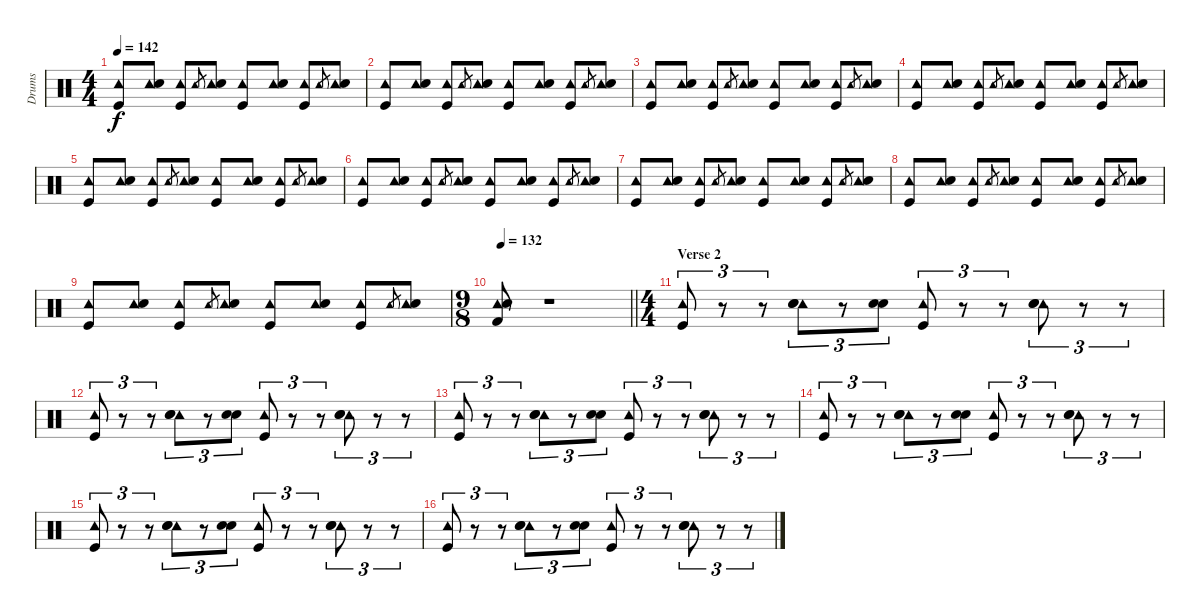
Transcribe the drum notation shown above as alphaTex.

\track ("Drums" "Drums") {instrument percussion}
\staff {score}
\articulation defaults
\ts (4 4)
\tempo 142
\clef neutral
\ks c
("Tambourine (hit)" "Kick (hit)").8{dy f} ("Tambourine (hit)" "Snare (hit) 2").8 ("Tambourine (hit)" "Kick (hit)").8 "Tambourine (hit)".8{gr} ("Tambourine (hit)" "Snare (hit) 2").8 ("Tambourine (hit)" "Kick (hit)").8 ("Tambourine (hit)" "Snare (hit) 2").8 ("Tambourine (hit)" "Kick (hit)").8 "Tambourine (hit)".8{gr} ("Tambourine (hit)" "Snare (hit) 2").8 |
("Tambourine (hit)" "Kick (hit)").8 ("Tambourine (hit)" "Snare (hit) 2").8 ("Tambourine (hit)" "Kick (hit)").8 "Tambourine (hit)".8{gr} ("Tambourine (hit)" "Snare (hit) 2").8 ("Tambourine (hit)" "Kick (hit)").8 ("Tambourine (hit)" "Snare (hit) 2").8 ("Tambourine (hit)" "Kick (hit)").8 "Tambourine (hit)".8{gr} ("Tambourine (hit)" "Snare (hit) 2").8 |
("Tambourine (hit)" "Kick (hit)").8 ("Tambourine (hit)" "Snare (hit) 2").8 ("Tambourine (hit)" "Kick (hit)").8 "Tambourine (hit)".8{gr} ("Tambourine (hit)" "Snare (hit) 2").8 ("Tambourine (hit)" "Kick (hit)").8 ("Tambourine (hit)" "Snare (hit) 2").8 ("Tambourine (hit)" "Kick (hit)").8 "Tambourine (hit)".8{gr} ("Tambourine (hit)" "Snare (hit) 2").8 |
("Tambourine (hit)" "Kick (hit)").8 ("Tambourine (hit)" "Snare (hit) 2").8 ("Tambourine (hit)" "Kick (hit)").8 "Tambourine (hit)".8{gr} ("Tambourine (hit)" "Snare (hit) 2").8 ("Tambourine (hit)" "Kick (hit)").8 ("Tambourine (hit)" "Snare (hit) 2").8 ("Tambourine (hit)" "Kick (hit)").8 "Tambourine (hit)".8{gr} ("Tambourine (hit)" "Snare (hit) 2").8 |
("Tambourine (hit)" "Kick (hit)").8 ("Tambourine (hit)" "Snare (hit) 2").8 ("Tambourine (hit)" "Kick (hit)").8 "Tambourine (hit)".8{gr} ("Tambourine (hit)" "Snare (hit) 2").8 ("Tambourine (hit)" "Kick (hit)").8 ("Tambourine (hit)" "Snare (hit) 2").8 ("Tambourine (hit)" "Kick (hit)").8 "Tambourine (hit)".8{gr} ("Tambourine (hit)" "Snare (hit) 2").8 |
("Tambourine (hit)" "Kick (hit)").8 ("Tambourine (hit)" "Snare (hit) 2").8 ("Tambourine (hit)" "Kick (hit)").8 "Tambourine (hit)".8{gr} ("Tambourine (hit)" "Snare (hit) 2").8 ("Tambourine (hit)" "Kick (hit)").8 ("Tambourine (hit)" "Snare (hit) 2").8 ("Tambourine (hit)" "Kick (hit)").8 "Tambourine (hit)".8{gr} ("Tambourine (hit)" "Snare (hit) 2").8 |
("Tambourine (hit)" "Kick (hit)").8 ("Tambourine (hit)" "Snare (hit) 2").8 ("Tambourine (hit)" "Kick (hit)").8 "Tambourine (hit)".8{gr} ("Tambourine (hit)" "Snare (hit) 2").8 ("Tambourine (hit)" "Kick (hit)").8 ("Tambourine (hit)" "Snare (hit) 2").8 ("Tambourine (hit)" "Kick (hit)").8 "Tambourine (hit)".8{gr} ("Tambourine (hit)" "Snare (hit) 2").8 |
("Tambourine (hit)" "Kick (hit)").8 ("Tambourine (hit)" "Snare (hit) 2").8 ("Tambourine (hit)" "Kick (hit)").8 "Tambourine (hit)".8{gr} ("Tambourine (hit)" "Snare (hit) 2").8 ("Tambourine (hit)" "Kick (hit)").8 ("Tambourine (hit)" "Snare (hit) 2").8 ("Tambourine (hit)" "Kick (hit)").8 "Tambourine (hit)".8{gr} ("Tambourine (hit)" "Snare (hit) 2").8 |
("Tambourine (hit)" "Kick (hit)").8 ("Tambourine (hit)" "Snare (hit) 2").8 ("Tambourine (hit)" "Kick (hit)").8 "Tambourine (hit)".8{gr} ("Tambourine (hit)" "Snare (hit) 2").8 ("Tambourine (hit)" "Kick (hit)").8 ("Tambourine (hit)" "Snare (hit) 2").8 ("Tambourine (hit)" "Kick (hit)").8 "Tambourine (hit)".8{gr} ("Tambourine (hit)" "Snare (hit) 2").8 |
\ts (9 8)
\tempo 132
\barLineRight lightlight
("Tambourine (hit)" "Snare (hit) 2" "Kick (hit) 2").8 r.1 |
\ts (4 4)
\section ("" "Verse 2")
("Tambourine (hit)" "Kick (hit)").8{tu (3 2)} r.8{tu (3 2)} r.8{tu (3 2)} ("Tambourine (hit)" "Hand Clap (hit)" "Snare (hit) 2").8{tu (3 2)} r.8{tu (3 2)} ("Hand Clap (hit)" "Snare (hit) 2").8{tu (3 2)} ("Tambourine (hit)" "Kick (hit)").8{tu (3 2)} r.8{tu (3 2)} r.8{tu (3 2)} ("Tambourine (hit)" "Hand Clap (hit)" "Snare (hit) 2").8{tu (3 2)} r.8{tu (3 2)} r.8{tu (3 2)} |
("Tambourine (hit)" "Kick (hit)").8{tu (3 2)} r.8{tu (3 2)} r.8{tu (3 2)} ("Tambourine (hit)" "Hand Clap (hit)" "Snare (hit) 2").8{tu (3 2)} r.8{tu (3 2)} ("Hand Clap (hit)" "Snare (hit) 2").8{tu (3 2)} ("Tambourine (hit)" "Kick (hit)").8{tu (3 2)} r.8{tu (3 2)} r.8{tu (3 2)} ("Tambourine (hit)" "Hand Clap (hit)" "Snare (hit) 2").8{tu (3 2)} r.8{tu (3 2)} r.8{tu (3 2)} |
("Tambourine (hit)" "Kick (hit)").8{tu (3 2)} r.8{tu (3 2)} r.8{tu (3 2)} ("Tambourine (hit)" "Hand Clap (hit)" "Snare (hit) 2").8{tu (3 2)} r.8{tu (3 2)} ("Hand Clap (hit)" "Snare (hit) 2").8{tu (3 2)} ("Tambourine (hit)" "Kick (hit)").8{tu (3 2)} r.8{tu (3 2)} r.8{tu (3 2)} ("Tambourine (hit)" "Hand Clap (hit)" "Snare (hit) 2").8{tu (3 2)} r.8{tu (3 2)} r.8{tu (3 2)} |
("Tambourine (hit)" "Kick (hit)").8{tu (3 2)} r.8{tu (3 2)} r.8{tu (3 2)} ("Tambourine (hit)" "Hand Clap (hit)" "Snare (hit) 2").8{tu (3 2)} r.8{tu (3 2)} ("Hand Clap (hit)" "Snare (hit) 2").8{tu (3 2)} ("Tambourine (hit)" "Kick (hit)").8{tu (3 2)} r.8{tu (3 2)} r.8{tu (3 2)} ("Tambourine (hit)" "Hand Clap (hit)" "Snare (hit) 2").8{tu (3 2)} r.8{tu (3 2)} r.8{tu (3 2)} |
("Tambourine (hit)" "Kick (hit)").8{tu (3 2)} r.8{tu (3 2)} r.8{tu (3 2)} ("Tambourine (hit)" "Hand Clap (hit)" "Snare (hit) 2").8{tu (3 2)} r.8{tu (3 2)} ("Hand Clap (hit)" "Snare (hit) 2").8{tu (3 2)} ("Tambourine (hit)" "Kick (hit)").8{tu (3 2)} r.8{tu (3 2)} r.8{tu (3 2)} ("Tambourine (hit)" "Hand Clap (hit)" "Snare (hit) 2").8{tu (3 2)} r.8{tu (3 2)} r.8{tu (3 2)} |
("Tambourine (hit)" "Kick (hit)").8{tu (3 2)} r.8{tu (3 2)} r.8{tu (3 2)} ("Tambourine (hit)" "Hand Clap (hit)" "Snare (hit) 2").8{tu (3 2)} r.8{tu (3 2)} ("Hand Clap (hit)" "Snare (hit) 2").8{tu (3 2)} ("Tambourine (hit)" "Kick (hit)").8{tu (3 2)} r.8{tu (3 2)} r.8{tu (3 2)} ("Tambourine (hit)" "Hand Clap (hit)" "Snare (hit) 2").8{tu (3 2)} r.8{tu (3 2)} r.8{tu (3 2)}
